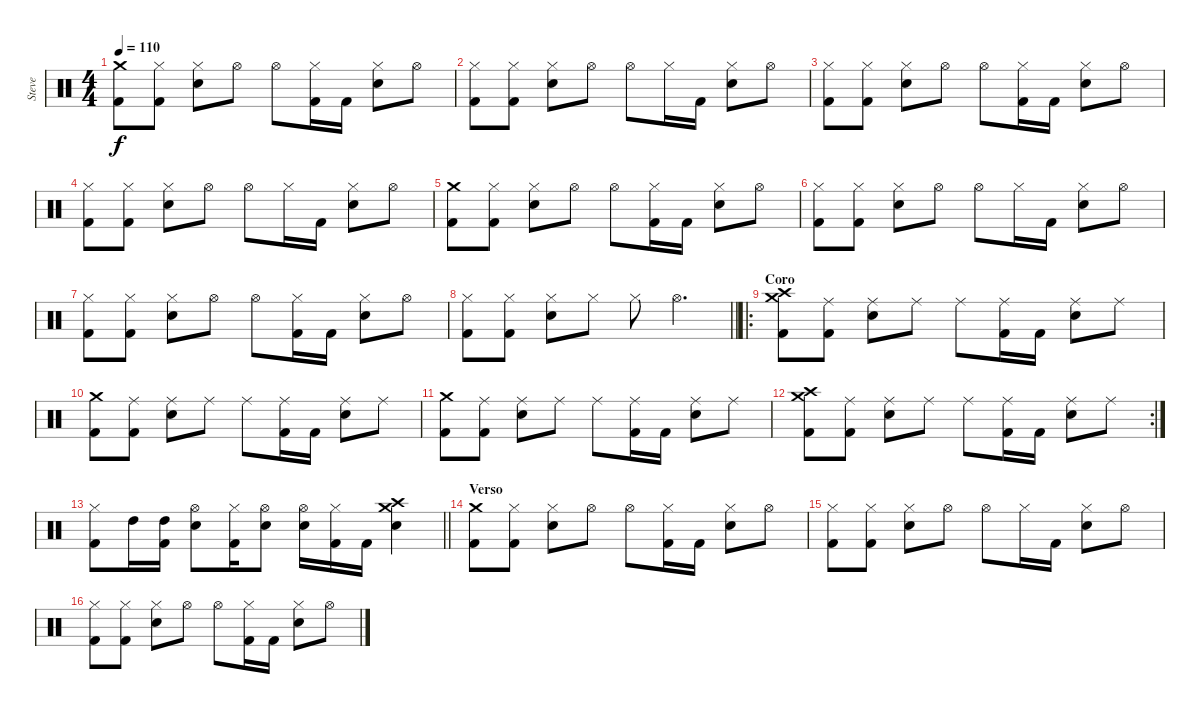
\track ("Steve " "Steve ") {instrument percussion}
\staff {score}
\articulation defaults
\ts (4 4)
\tempo 110
\clef neutral
\ks c
("Crash medium (hit)" "Kick (hit) 2").8{dy f} ("Hi-Hat (closed)" "Kick (hit) 2").8 ("Hi-Hat (closed)" "Electric Snare (hit)").8 "Hi-Hat (open)".8 "Hi-Hat (open)".8 ("Hi-Hat (closed)" "Kick (hit) 2").16 "Kick (hit) 2".16 ("Hi-Hat (closed)" "Electric Snare (hit)").8 "Hi-Hat (open)".8 |
("Hi-Hat (closed)" "Kick (hit) 2").8 ("Hi-Hat (closed)" "Kick (hit) 2").8 ("Hi-Hat (closed)" "Electric Snare (hit)").8 "Hi-Hat (open)".8 "Hi-Hat (open)".8 "Hi-Hat (closed)".16 "Kick (hit) 2".16 ("Hi-Hat (closed)" "Electric Snare (hit)").8 "Hi-Hat (open)".8 |
("Hi-Hat (closed)" "Kick (hit) 2").8 ("Hi-Hat (closed)" "Kick (hit) 2").8 ("Hi-Hat (closed)" "Electric Snare (hit)").8 "Hi-Hat (open)".8 "Hi-Hat (open)".8 ("Hi-Hat (closed)" "Kick (hit) 2").16 "Kick (hit) 2".16 ("Hi-Hat (closed)" "Electric Snare (hit)").8 "Hi-Hat (open)".8 |
("Hi-Hat (closed)" "Kick (hit) 2").8 ("Hi-Hat (closed)" "Kick (hit) 2").8 ("Hi-Hat (closed)" "Electric Snare (hit)").8 "Hi-Hat (open)".8 "Hi-Hat (open)".8 "Hi-Hat (closed)".16 "Kick (hit) 2".16 ("Hi-Hat (closed)" "Electric Snare (hit)").8 "Hi-Hat (open)".8 |
("Crash medium (hit)" "Kick (hit) 2").8 ("Hi-Hat (closed)" "Kick (hit) 2").8 ("Hi-Hat (closed)" "Electric Snare (hit)").8 "Hi-Hat (open)".8 "Hi-Hat (open)".8 ("Hi-Hat (closed)" "Kick (hit) 2").16 "Kick (hit) 2".16 ("Hi-Hat (closed)" "Electric Snare (hit)").8 "Hi-Hat (open)".8 |
("Hi-Hat (closed)" "Kick (hit) 2").8 ("Hi-Hat (closed)" "Kick (hit) 2").8 ("Hi-Hat (closed)" "Electric Snare (hit)").8 "Hi-Hat (open)".8 "Hi-Hat (open)".8 "Hi-Hat (closed)".16 "Kick (hit) 2".16 ("Hi-Hat (closed)" "Electric Snare (hit)").8 "Hi-Hat (open)".8 |
("Hi-Hat (closed)" "Kick (hit) 2").8 ("Hi-Hat (closed)" "Kick (hit) 2").8 ("Hi-Hat (closed)" "Electric Snare (hit)").8 "Hi-Hat (open)".8 "Hi-Hat (open)".8 ("Hi-Hat (closed)" "Kick (hit) 2").16 "Kick (hit) 2".16 ("Hi-Hat (closed)" "Electric Snare (hit)").8 "Hi-Hat (open)".8 |
\barLineRight lightlight
("Hi-Hat (closed)" "Kick (hit) 2").8 ("Hi-Hat (closed)" "Kick (hit) 2").8 ("Hi-Hat (closed)" "Electric Snare (hit)").8 "Hi-Hat (closed)".8 "Hi-Hat (closed)".8 "Hi-Hat (open)".4{d} |
\ro
\section ("" "Coro")
("Crash medium (hit)" "Crash high (hit)" "Kick (hit) 2").8 ("Ride (middle)" "Kick (hit) 2").8 ("Ride (middle)" "Electric Snare (hit)").8 "Ride (middle)".8 "Ride (middle)".8 ("Ride (middle)" "Kick (hit) 2").16 "Kick (hit) 2".16 ("Ride (middle)" "Electric Snare (hit)").8 "Ride (middle)".8 |
("Crash medium (hit)" "Kick (hit) 2").8 ("Ride (middle)" "Kick (hit) 2").8 ("Ride (middle)" "Electric Snare (hit)").8 "Ride (middle)".8 "Ride (middle)".8 ("Ride (middle)" "Kick (hit) 2").16 "Kick (hit) 2".16 ("Ride (middle)" "Electric Snare (hit)").8 "Ride (middle)".8 |
("Crash medium (hit)" "Kick (hit) 2").8 ("Ride (middle)" "Kick (hit) 2").8 ("Ride (middle)" "Electric Snare (hit)").8 "Ride (middle)".8 "Ride (middle)".8 ("Ride (middle)" "Kick (hit) 2").16 "Kick (hit) 2".16 ("Ride (middle)" "Electric Snare (hit)").8 "Ride (middle)".8 |
\rc 2
("Crash medium (hit)" "Crash high (hit)" "Kick (hit) 2").8 ("Ride (middle)" "Kick (hit) 2").8 ("Ride (middle)" "Electric Snare (hit)").8 "Ride (middle)".8 "Ride (middle)".8 ("Ride (middle)" "Kick (hit) 2").16 "Kick (hit) 2".16 ("Ride (middle)" "Electric Snare (hit)").8 "Ride (middle)".8 |
\barLineRight lightlight
("Hi-Hat (closed)" "Kick (hit) 2").8 "High Tom (hit)".16 ("High Tom (hit)" "Kick (hit) 2").16 ("Hi-Hat (open)" "Electric Snare (hit)").8 ("Hi-Hat (closed)" "Kick (hit) 2").16 ("Hi-Hat (open)" "Electric Snare (hit)").8 ("Hi-Hat (open)" "Electric Snare (hit)").16 ("Hi-Hat (closed)" "Kick (hit) 2").16 "Kick (hit) 2".16 ("Crash medium (hit)" "Crash high (hit)" "Electric Snare (hit)").4 |
\section ("" "Verso")
("Crash medium (hit)" "Kick (hit) 2").8 ("Hi-Hat (closed)" "Kick (hit) 2").8 ("Hi-Hat (closed)" "Electric Snare (hit)").8 "Hi-Hat (open)".8 "Hi-Hat (open)".8 ("Hi-Hat (closed)" "Kick (hit) 2").16 "Kick (hit) 2".16 ("Hi-Hat (closed)" "Electric Snare (hit)").8 "Hi-Hat (open)".8 |
("Hi-Hat (closed)" "Kick (hit) 2").8 ("Hi-Hat (closed)" "Kick (hit) 2").8 ("Hi-Hat (closed)" "Electric Snare (hit)").8 "Hi-Hat (open)".8 "Hi-Hat (open)".8 "Hi-Hat (closed)".16 "Kick (hit) 2".16 ("Hi-Hat (closed)" "Electric Snare (hit)").8 "Hi-Hat (open)".8 |
("Hi-Hat (closed)" "Kick (hit) 2").8 ("Hi-Hat (closed)" "Kick (hit) 2").8 ("Hi-Hat (closed)" "Electric Snare (hit)").8 "Hi-Hat (open)".8 "Hi-Hat (open)".8 ("Hi-Hat (closed)" "Kick (hit) 2").16 "Kick (hit) 2".16 ("Hi-Hat (closed)" "Electric Snare (hit)").8 "Hi-Hat (open)".8
